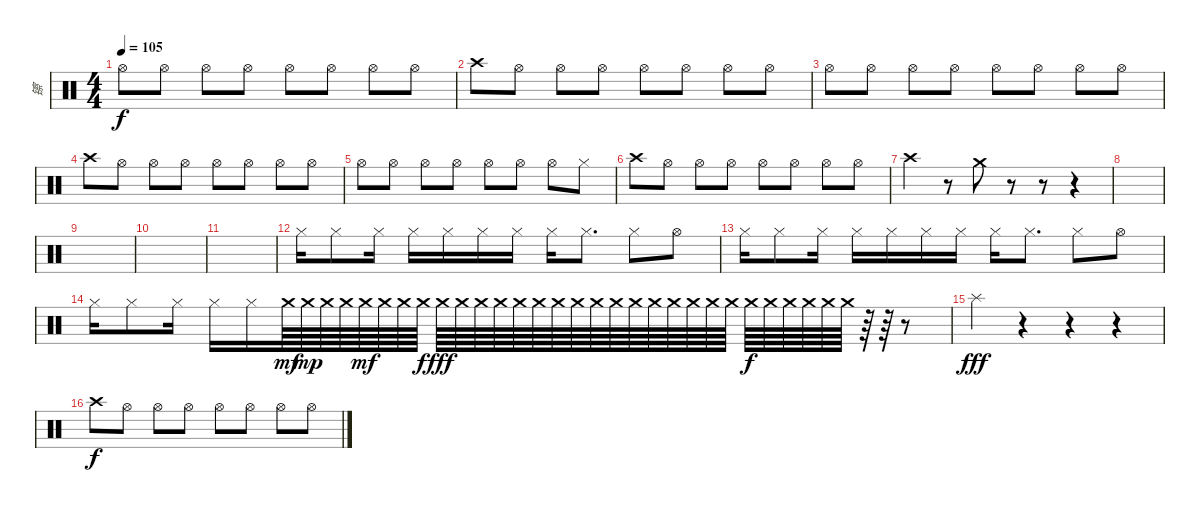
\track ("镲" "镲") {instrument percussion}
\staff {score}
\articulation defaults
\ts (4 4)
\tempo 105
\clef neutral
\ks c "Hi-Hat (open)".8{dy f} "Hi-Hat (open)".8 "Hi-Hat (open)".8 "Hi-Hat (open)".8 "Hi-Hat (open)".8 "Hi-Hat (open)".8 "Hi-Hat (open)".8 "Hi-Hat (open)".8
|
"Crash high (hit)".8 "Hi-Hat (open)".8 "Hi-Hat (open)".8 "Hi-Hat (open)".8 "Hi-Hat (open)".8 "Hi-Hat (open)".8 "Hi-Hat (open)".8 "Hi-Hat (open)".8 |
"Hi-Hat (open)".8 "Hi-Hat (open)".8 "Hi-Hat (open)".8 "Hi-Hat (open)".8 "Hi-Hat (open)".8 "Hi-Hat (open)".8 "Hi-Hat (open)".8 "Hi-Hat (open)".8 |
"Crash high (hit)".8 "Hi-Hat (open)".8 "Hi-Hat (open)".8 "Hi-Hat (open)".8 "Hi-Hat (open)".8 "Hi-Hat (open)".8 "Hi-Hat (open)".8 "Hi-Hat (open)".8 |
"Hi-Hat (open)".8 "Hi-Hat (open)".8 "Hi-Hat (open)".8 "Hi-Hat (open)".8 "Hi-Hat (open)".8 "Hi-Hat (open)".8 "Hi-Hat (open)".8 "Hi-Hat (closed)".8 |
"Crash high (hit)".8 "Hi-Hat (open)".8 "Hi-Hat (open)".8 "Hi-Hat (open)".8 "Hi-Hat (open)".8 "Hi-Hat (open)".8 "Hi-Hat (open)".8 "Hi-Hat (open)".8 |
"Crash high (hit)".4 r.8 "Crash medium (hit)".8 r.8 r.8 r.4 |
|
|
|
|
"Hi-Hat (closed)".16 "Hi-Hat (closed)".8 "Hi-Hat (closed)".16 "Hi-Hat (closed)".16 "Hi-Hat (closed)".16 "Hi-Hat (closed)".16 "Hi-Hat (closed)".16 "Hi-Hat (closed)".16 "Hi-Hat (closed)".8{d} "Hi-Hat (closed)".8 "Hi-Hat (open)".8 |
"Hi-Hat (closed)".16 "Hi-Hat (closed)".8 "Hi-Hat (closed)".16 "Hi-Hat (closed)".16 "Hi-Hat (closed)".16 "Hi-Hat (closed)".16 "Hi-Hat (closed)".16 "Hi-Hat (closed)".16 "Hi-Hat (closed)".8{d} "Hi-Hat (closed)".8 "Hi-Hat (open)".8 |
"Hi-Hat (closed)".16 "Hi-Hat (closed)".8 "Hi-Hat (closed)".16 "Hi-Hat (closed)".16 "Hi-Hat (closed)".16 "Crash medium (hit)".64{dy mf} "Crash medium (hit)".64{dy mp} "Crash medium (hit)".64 "Crash medium (hit)".64 "Crash medium (hit)".64{dy mf} "Crash medium (hit)".64 "Crash medium (hit)".64 "Crash medium (hit)".64{dy f} "Crash medium (hit)".64{dy fff} "Crash medium (hit)".64 "Crash medium (hit)".64 "Crash medium (hit)".64 "Crash medium (hit)".64 "Crash medium (hit)".64 "Crash medium (hit)".64 "Crash medium (hit)".64 "Crash medium (hit)".64 "Crash medium (hit)".64 "Crash medium (hit)".64 "Crash medium (hit)".64 "Crash medium (hit)".64 "Crash medium (hit)".64 "Crash medium (hit)".64 "Crash medium (hit)".64 "Crash medium (hit)".64{dy f} "Crash medium (hit)".64 "Crash medium (hit)".64 "Crash medium (hit)".64 "Crash medium (hit)".64 "Crash medium (hit)".64 r.64 r.64 r.8 |
"Splash (hit)".4{dy fff} r.4 r.4 r.4 |
"Crash high (hit)".8{dy f} "Hi-Hat (open)".8 "Hi-Hat (open)".8 "Hi-Hat (open)".8 "Hi-Hat (open)".8 "Hi-Hat (open)".8 "Hi-Hat (open)".8 "Hi-Hat (open)".8
